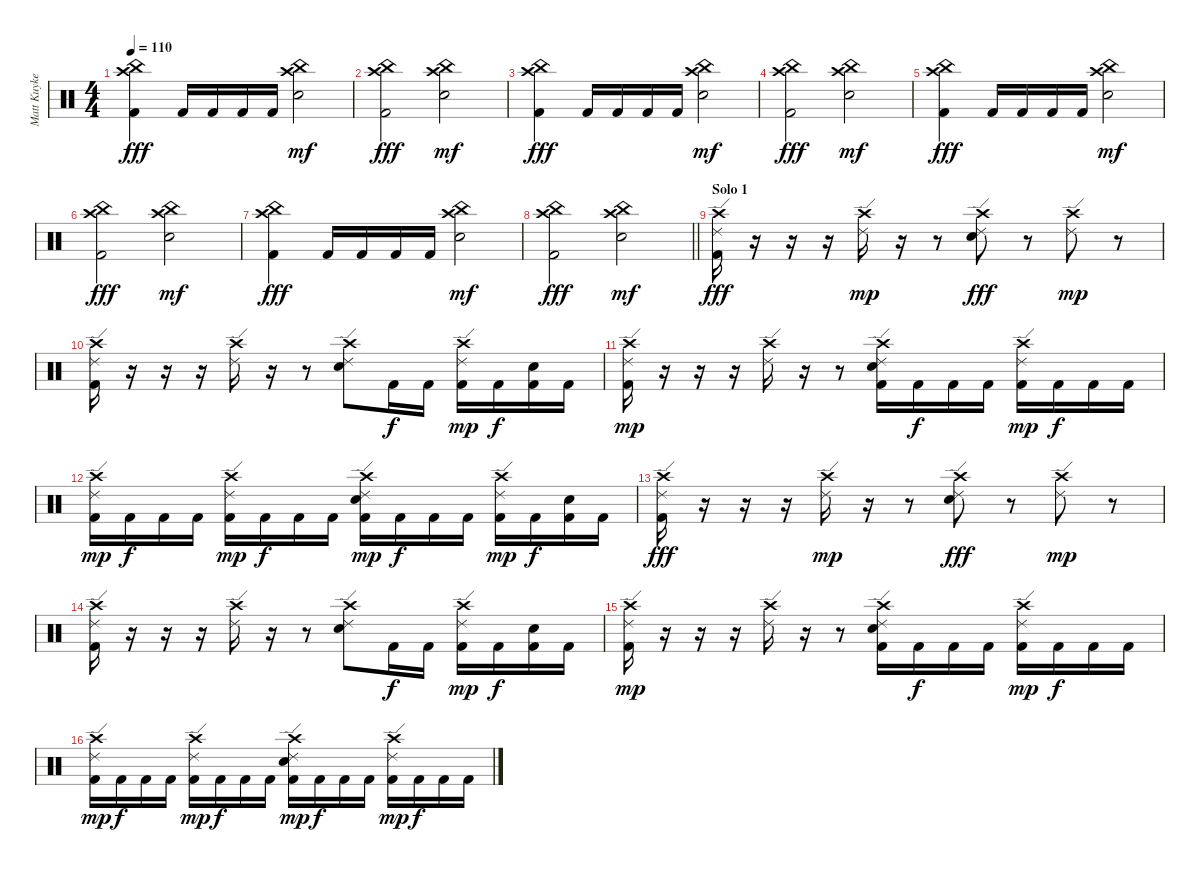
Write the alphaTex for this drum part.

\track ("Matt Kuykendall" "Matt Kuyke") {instrument percussion}
\staff {score}
\articulation defaults
\ts (4 4)
\tempo 110
\clef neutral
\ks c
("Crash high (hit)" "China (hit)" "Kick (hit) 2").4{dy fff} "Kick (hit) 2".16 "Kick (hit) 2".16 "Kick (hit) 2".16 "Kick (hit) 2".16 ("Crash high (hit)" "China (hit)" "Electric Snare (hit)").2{dy mf} |
("Crash high (hit)" "China (hit)" "Kick (hit) 2").2{dy fff} ("Crash high (hit)" "China (hit)" "Electric Snare (hit)").2{dy mf} |
("Crash high (hit)" "China (hit)" "Kick (hit) 2").4{dy fff} "Kick (hit) 2".16 "Kick (hit) 2".16 "Kick (hit) 2".16 "Kick (hit) 2".16 ("Crash high (hit)" "China (hit)" "Electric Snare (hit)").2{dy mf} |
("Crash high (hit)" "China (hit)" "Kick (hit) 2").2{dy fff} ("Crash high (hit)" "China (hit)" "Electric Snare (hit)").2{dy mf} |
("Crash high (hit)" "China (hit)" "Kick (hit) 2").4{dy fff} "Kick (hit) 2".16 "Kick (hit) 2".16 "Kick (hit) 2".16 "Kick (hit) 2".16 ("Crash high (hit)" "China (hit)" "Electric Snare (hit)").2{dy mf} |
("Crash high (hit)" "China (hit)" "Kick (hit) 2").2{dy fff} ("Crash high (hit)" "China (hit)" "Electric Snare (hit)").2{dy mf} |
("Crash high (hit)" "China (hit)" "Kick (hit) 2").4{dy fff} "Kick (hit) 2".16 "Kick (hit) 2".16 "Kick (hit) 2".16 "Kick (hit) 2".16 ("Crash high (hit)" "China (hit)" "Electric Snare (hit)").2{dy mf} |
\barLineRight lightlight
("Crash high (hit)" "China (hit)" "Kick (hit) 2").2{dy fff} ("Crash high (hit)" "China (hit)" "Electric Snare (hit)").2{dy mf} |
\section ("" "Solo 1")
("Crash high (hit)" "Ride (edge) 2" "Kick (hit) 2").16{dy fff} r.16 r.16 r.16 ("Crash high (hit)" "Ride (edge) 2").16{dy mp} r.16 r.8 ("Crash high (hit)" "Ride (edge) 2" "Electric Snare (hit)").8{dy fff} r.8 ("Crash high (hit)" "Ride (edge) 2").8{dy mp} r.8 |
("Crash high (hit)" "Ride (edge) 2" "Kick (hit) 2").16 r.16 r.16 r.16 ("Crash high (hit)" "Ride (edge) 2").16 r.16 r.8 ("Crash high (hit)" "Ride (edge) 2" "Electric Snare (hit)").8 "Kick (hit) 2".16{dy f} "Kick (hit) 2".16 ("Crash high (hit)" "Ride (edge) 2" "Kick (hit) 2").16{dy mp} "Kick (hit) 2".16{dy f} ("Electric Snare (hit)" "Kick (hit) 2").16 "Kick (hit) 2".16 |
("Crash high (hit)" "Ride (edge) 2" "Kick (hit) 2").16{dy mp} r.16 r.16 r.16 ("Crash high (hit)" "Ride (edge) 2").16 r.16 r.8 ("Crash high (hit)" "Ride (edge) 2" "Electric Snare (hit)" "Kick (hit) 2").16 "Kick (hit) 2".16{dy f} "Kick (hit) 2".16 "Kick (hit) 2".16 ("Crash high (hit)" "Ride (edge) 2" "Kick (hit) 2").16{dy mp} "Kick (hit) 2".16{dy f} "Kick (hit) 2".16 "Kick (hit) 2".16 |
("Crash high (hit)" "Ride (edge) 2" "Kick (hit) 2").16{dy mp} "Kick (hit) 2".16{dy f} "Kick (hit) 2".16 "Kick (hit) 2".16 ("Crash high (hit)" "Ride (edge) 2" "Kick (hit) 2").16{dy mp} "Kick (hit) 2".16{dy f} "Kick (hit) 2".16 "Kick (hit) 2".16 ("Crash high (hit)" "Ride (edge) 2" "Electric Snare (hit)" "Kick (hit) 2").16{dy mp} "Kick (hit) 2".16{dy f} "Kick (hit) 2".16 "Kick (hit) 2".16 ("Crash high (hit)" "Ride (edge) 2" "Kick (hit) 2").16{dy mp} "Kick (hit) 2".16{dy f} ("Electric Snare (hit)" "Kick (hit) 2").16 "Kick (hit) 2".16 |
("Crash high (hit)" "Ride (edge) 2" "Kick (hit) 2").16{dy fff} r.16 r.16 r.16 ("Crash high (hit)" "Ride (edge) 2").16{dy mp} r.16 r.8 ("Crash high (hit)" "Ride (edge) 2" "Electric Snare (hit)").8{dy fff} r.8 ("Crash high (hit)" "Ride (edge) 2").8{dy mp} r.8 |
("Crash high (hit)" "Ride (edge) 2" "Kick (hit) 2").16 r.16 r.16 r.16 ("Crash high (hit)" "Ride (edge) 2").16 r.16 r.8 ("Crash high (hit)" "Ride (edge) 2" "Electric Snare (hit)").8 "Kick (hit) 2".16{dy f} "Kick (hit) 2".16 ("Crash high (hit)" "Ride (edge) 2" "Kick (hit) 2").16{dy mp} "Kick (hit) 2".16{dy f} ("Electric Snare (hit)" "Kick (hit) 2").16 "Kick (hit) 2".16 |
("Crash high (hit)" "Ride (edge) 2" "Kick (hit) 2").16{dy mp} r.16 r.16 r.16 ("Crash high (hit)" "Ride (edge) 2").16 r.16 r.8 ("Crash high (hit)" "Ride (edge) 2" "Electric Snare (hit)" "Kick (hit) 2").16 "Kick (hit) 2".16{dy f} "Kick (hit) 2".16 "Kick (hit) 2".16 ("Crash high (hit)" "Ride (edge) 2" "Kick (hit) 2").16{dy mp} "Kick (hit) 2".16{dy f} "Kick (hit) 2".16 "Kick (hit) 2".16 |
("Crash high (hit)" "Ride (edge) 2" "Kick (hit) 2").16{dy mp} "Kick (hit) 2".16{dy f} "Kick (hit) 2".16 "Kick (hit) 2".16 ("Crash high (hit)" "Ride (edge) 2" "Kick (hit) 2").16{dy mp} "Kick (hit) 2".16{dy f} "Kick (hit) 2".16 "Kick (hit) 2".16 ("Crash high (hit)" "Ride (edge) 2" "Electric Snare (hit)" "Kick (hit) 2").16{dy mp} "Kick (hit) 2".16{dy f} "Kick (hit) 2".16 "Kick (hit) 2".16 ("Crash high (hit)" "Ride (edge) 2" "Kick (hit) 2").16{dy mp} "Kick (hit) 2".16{dy f} "Kick (hit) 2".16 "Kick (hit) 2".16
